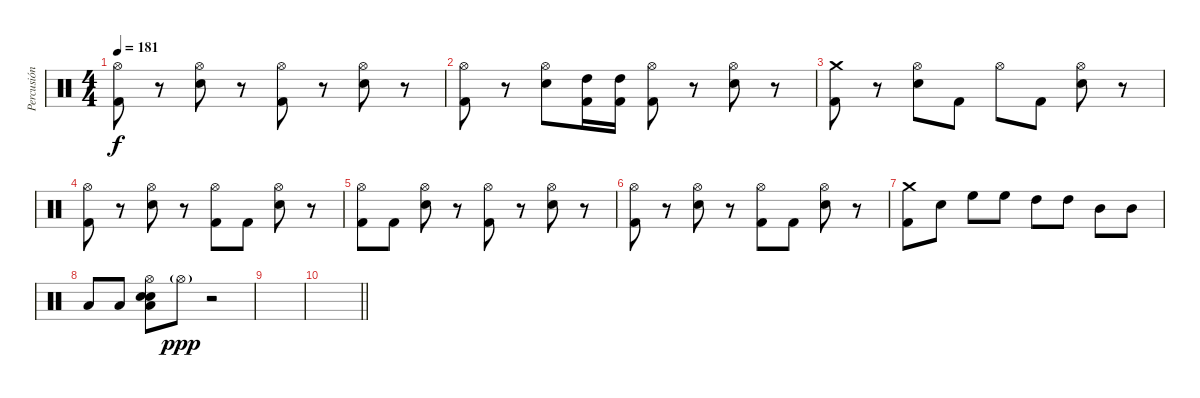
\track ("Percusión" "Percusión") {instrument percussion}
\staff {score}
\articulation defaults
\ts (4 4)
\tempo 181
\clef neutral
\ks c
("Hi-Hat (open)" "Kick (hit) 2").8{dy f} r.8 ("Hi-Hat (open)" "Electric Snare (hit)").8 r.8 ("Hi-Hat (open)" "Kick (hit) 2").8 r.8 ("Hi-Hat (open)" "Electric Snare (hit)").8 r.8 |
("Hi-Hat (open)" "Kick (hit) 2").8 r.8 ("Hi-Hat (open)" "Electric Snare (hit)").8 ("High Tom (hit)" "Kick (hit) 2").16 ("High Tom (hit)" "Kick (hit) 2").16 ("Hi-Hat (open)" "Kick (hit) 2").8 r.8 ("Hi-Hat (open)" "Electric Snare (hit)").8 r.8 |
("Crash medium (hit)" "Kick (hit) 2").8 r.8 ("Hi-Hat (open)" "Electric Snare (hit)").8 "Kick (hit) 2".8 "Hi-Hat (open)".8 "Kick (hit) 2".8 ("Hi-Hat (open)" "Electric Snare (hit)").8 r.8 |
("Hi-Hat (open)" "Kick (hit) 2").8 r.8 ("Hi-Hat (open)" "Electric Snare (hit)").8 r.8 ("Hi-Hat (open)" "Kick (hit) 2").8 "Kick (hit) 2".8 ("Hi-Hat (open)" "Electric Snare (hit)").8 r.8 |
("Hi-Hat (open)" "Kick (hit) 2").8 "Kick (hit) 2".8 ("Hi-Hat (open)" "Electric Snare (hit)").8 r.8 ("Hi-Hat (open)" "Kick (hit) 2").8 r.8 ("Hi-Hat (open)" "Electric Snare (hit)").8 r.8 |
("Hi-Hat (open)" "Kick (hit) 2").8 r.8 ("Hi-Hat (open)" "Electric Snare (hit)").8 r.8 ("Hi-Hat (open)" "Kick (hit) 2").8 "Kick (hit) 2".8 ("Hi-Hat (open)" "Electric Snare (hit)").8 r.8 |
("Crash medium (hit)" "Kick (hit) 2").8 "Electric Snare (hit)".8 "High Floor Tom (hit)".8 "High Floor Tom (hit)".8 "High Tom (hit)".8 "High Tom (hit)".8 "Mid Tom (hit)".8 "Mid Tom (hit)".8 |
"Low Tom (hit)".8 "Low Tom (hit)".8 ("Hi-Hat (open)" "Snare (hit) 2" "Electric Snare (hit)" "Low Tom (hit)").8 "Hi-Hat (open)"{g}.8{dy ppp} r.2 |
|
\barLineRight lightlight
